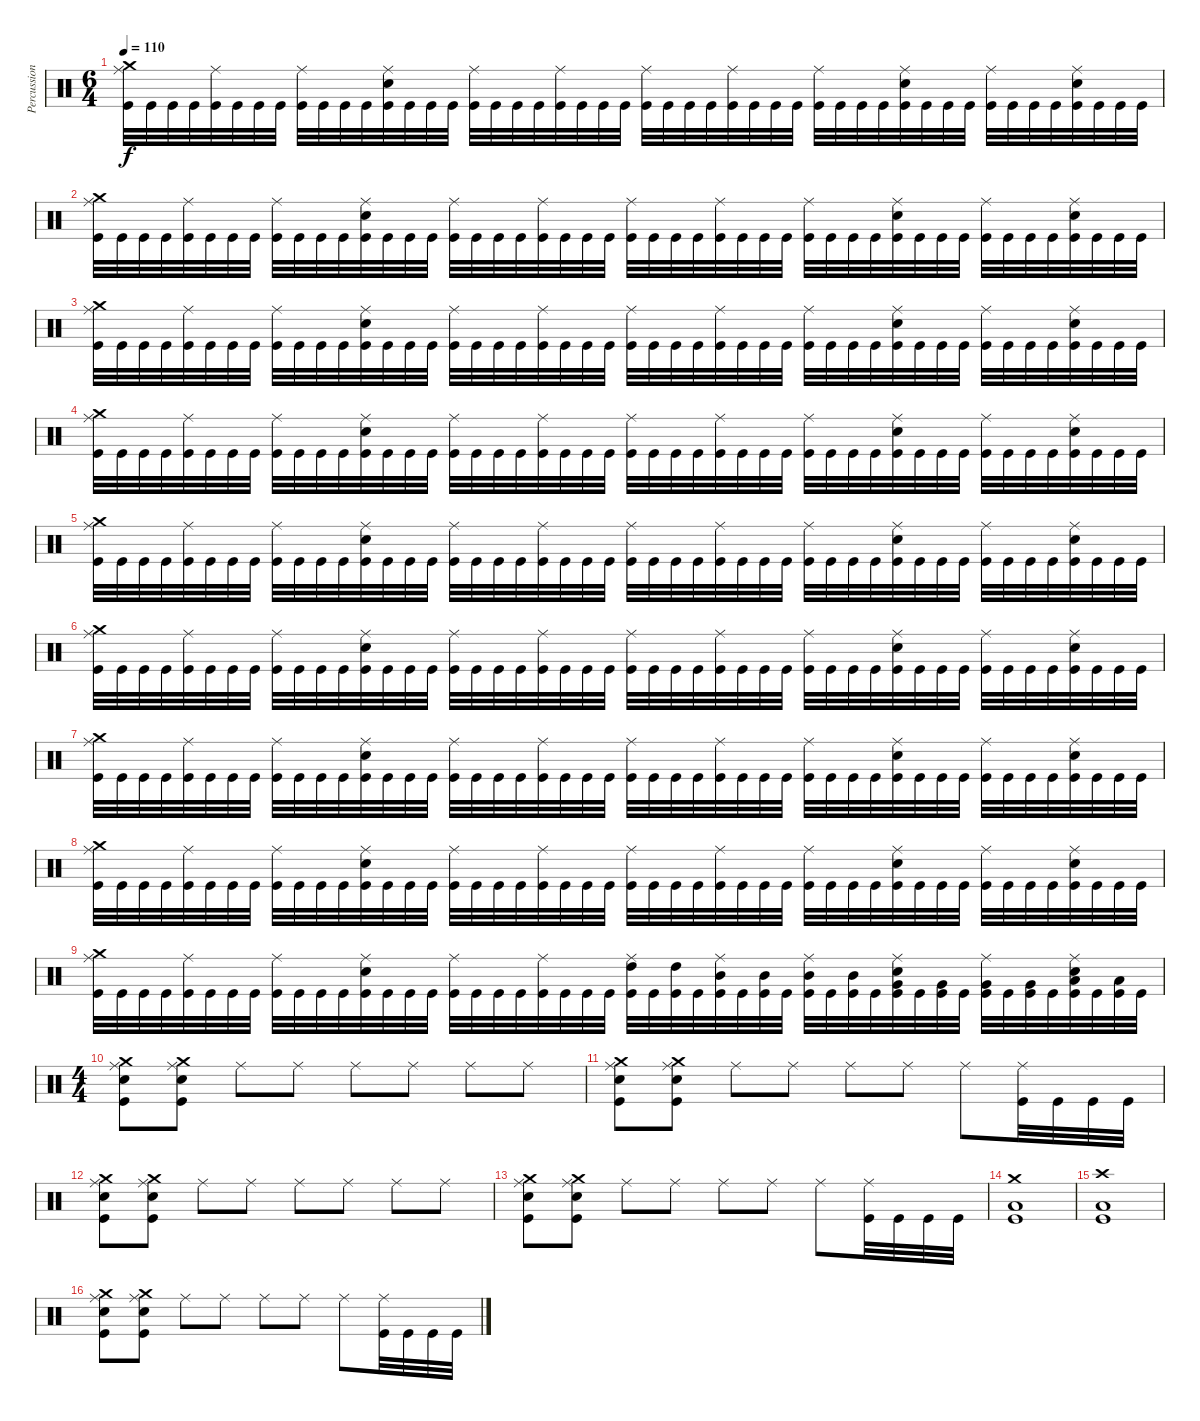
\track ("Percussion" "Percussion") {instrument percussion}
\staff {score}
\articulation defaults
\ts (6 4)
\tempo 110
\clef neutral
\ks c
("Crash medium (hit)" "Ride (middle)" "Kick (hit)").32{dy f} "Kick (hit)".32 "Kick (hit)".32 "Kick (hit)".32 ("Ride (middle)" "Kick (hit)").32 "Kick (hit)".32 "Kick (hit)".32 "Kick (hit)".32 ("Ride (middle)" "Kick (hit)").32 "Kick (hit)".32 "Kick (hit)".32 "Kick (hit)".32 ("Ride (middle)" "Electric Snare (hit)" "Kick (hit)").32 "Kick (hit)".32 "Kick (hit)".32 "Kick (hit)".32 ("Ride (middle)" "Kick (hit)").32 "Kick (hit)".32 "Kick (hit)".32 "Kick (hit)".32 ("Ride (middle)" "Kick (hit)").32 "Kick (hit)".32 "Kick (hit)".32 "Kick (hit)".32 ("Ride (middle)" "Kick (hit)").32 "Kick (hit)".32 "Kick (hit)".32 "Kick (hit)".32 ("Ride (middle)" "Kick (hit)").32 "Kick (hit)".32 "Kick (hit)".32 "Kick (hit)".32 ("Ride (middle)" "Kick (hit)").32 "Kick (hit)".32 "Kick (hit)".32 "Kick (hit)".32 ("Ride (middle)" "Electric Snare (hit)" "Kick (hit)").32 "Kick (hit)".32 "Kick (hit)".32 "Kick (hit)".32 ("Ride (middle)" "Kick (hit)").32 "Kick (hit)".32 "Kick (hit)".32 "Kick (hit)".32 ("Ride (middle)" "Electric Snare (hit)" "Kick (hit)").32 "Kick (hit)".32 "Kick (hit)".32 "Kick (hit)".32 |
("Crash medium (hit)" "Ride (middle)" "Kick (hit)").32 "Kick (hit)".32 "Kick (hit)".32 "Kick (hit)".32 ("Ride (middle)" "Kick (hit)").32 "Kick (hit)".32 "Kick (hit)".32 "Kick (hit)".32 ("Ride (middle)" "Kick (hit)").32 "Kick (hit)".32 "Kick (hit)".32 "Kick (hit)".32 ("Ride (middle)" "Electric Snare (hit)" "Kick (hit)").32 "Kick (hit)".32 "Kick (hit)".32 "Kick (hit)".32 ("Ride (middle)" "Kick (hit)").32 "Kick (hit)".32 "Kick (hit)".32 "Kick (hit)".32 ("Ride (middle)" "Kick (hit)").32 "Kick (hit)".32 "Kick (hit)".32 "Kick (hit)".32 ("Ride (middle)" "Kick (hit)").32 "Kick (hit)".32 "Kick (hit)".32 "Kick (hit)".32 ("Ride (middle)" "Kick (hit)").32 "Kick (hit)".32 "Kick (hit)".32 "Kick (hit)".32 ("Ride (middle)" "Kick (hit)").32 "Kick (hit)".32 "Kick (hit)".32 "Kick (hit)".32 ("Ride (middle)" "Electric Snare (hit)" "Kick (hit)").32 "Kick (hit)".32 "Kick (hit)".32 "Kick (hit)".32 ("Ride (middle)" "Kick (hit)").32 "Kick (hit)".32 "Kick (hit)".32 "Kick (hit)".32 ("Ride (middle)" "Electric Snare (hit)" "Kick (hit)").32 "Kick (hit)".32 "Kick (hit)".32 "Kick (hit)".32 |
("Crash medium (hit)" "Ride (middle)" "Kick (hit)").32 "Kick (hit)".32 "Kick (hit)".32 "Kick (hit)".32 ("Ride (middle)" "Kick (hit)").32 "Kick (hit)".32 "Kick (hit)".32 "Kick (hit)".32 ("Ride (middle)" "Kick (hit)").32 "Kick (hit)".32 "Kick (hit)".32 "Kick (hit)".32 ("Ride (middle)" "Electric Snare (hit)" "Kick (hit)").32 "Kick (hit)".32 "Kick (hit)".32 "Kick (hit)".32 ("Ride (middle)" "Kick (hit)").32 "Kick (hit)".32 "Kick (hit)".32 "Kick (hit)".32 ("Ride (middle)" "Kick (hit)").32 "Kick (hit)".32 "Kick (hit)".32 "Kick (hit)".32 ("Ride (middle)" "Kick (hit)").32 "Kick (hit)".32 "Kick (hit)".32 "Kick (hit)".32 ("Ride (middle)" "Kick (hit)").32 "Kick (hit)".32 "Kick (hit)".32 "Kick (hit)".32 ("Ride (middle)" "Kick (hit)").32 "Kick (hit)".32 "Kick (hit)".32 "Kick (hit)".32 ("Ride (middle)" "Electric Snare (hit)" "Kick (hit)").32 "Kick (hit)".32 "Kick (hit)".32 "Kick (hit)".32 ("Ride (middle)" "Kick (hit)").32 "Kick (hit)".32 "Kick (hit)".32 "Kick (hit)".32 ("Ride (middle)" "Electric Snare (hit)" "Kick (hit)").32 "Kick (hit)".32 "Kick (hit)".32 "Kick (hit)".32 |
("Crash medium (hit)" "Ride (middle)" "Kick (hit)").32 "Kick (hit)".32 "Kick (hit)".32 "Kick (hit)".32 ("Ride (middle)" "Kick (hit)").32 "Kick (hit)".32 "Kick (hit)".32 "Kick (hit)".32 ("Ride (middle)" "Kick (hit)").32 "Kick (hit)".32 "Kick (hit)".32 "Kick (hit)".32 ("Ride (middle)" "Electric Snare (hit)" "Kick (hit)").32 "Kick (hit)".32 "Kick (hit)".32 "Kick (hit)".32 ("Ride (middle)" "Kick (hit)").32 "Kick (hit)".32 "Kick (hit)".32 "Kick (hit)".32 ("Ride (middle)" "Kick (hit)").32 "Kick (hit)".32 "Kick (hit)".32 "Kick (hit)".32 ("Ride (middle)" "Kick (hit)").32 "Kick (hit)".32 "Kick (hit)".32 "Kick (hit)".32 ("Ride (middle)" "Kick (hit)").32 "Kick (hit)".32 "Kick (hit)".32 "Kick (hit)".32 ("Ride (middle)" "Kick (hit)").32 "Kick (hit)".32 "Kick (hit)".32 "Kick (hit)".32 ("Ride (middle)" "Electric Snare (hit)" "Kick (hit)").32 "Kick (hit)".32 "Kick (hit)".32 "Kick (hit)".32 ("Ride (middle)" "Kick (hit)").32 "Kick (hit)".32 "Kick (hit)".32 "Kick (hit)".32 ("Ride (middle)" "Electric Snare (hit)" "Kick (hit)").32 "Kick (hit)".32 "Kick (hit)".32 "Kick (hit)".32 |
("Crash medium (hit)" "Ride (middle)" "Kick (hit)").32 "Kick (hit)".32 "Kick (hit)".32 "Kick (hit)".32 ("Ride (middle)" "Kick (hit)").32 "Kick (hit)".32 "Kick (hit)".32 "Kick (hit)".32 ("Ride (middle)" "Kick (hit)").32 "Kick (hit)".32 "Kick (hit)".32 "Kick (hit)".32 ("Ride (middle)" "Electric Snare (hit)" "Kick (hit)").32 "Kick (hit)".32 "Kick (hit)".32 "Kick (hit)".32 ("Ride (middle)" "Kick (hit)").32 "Kick (hit)".32 "Kick (hit)".32 "Kick (hit)".32 ("Ride (middle)" "Kick (hit)").32 "Kick (hit)".32 "Kick (hit)".32 "Kick (hit)".32 ("Ride (middle)" "Kick (hit)").32 "Kick (hit)".32 "Kick (hit)".32 "Kick (hit)".32 ("Ride (middle)" "Kick (hit)").32 "Kick (hit)".32 "Kick (hit)".32 "Kick (hit)".32 ("Ride (middle)" "Kick (hit)").32 "Kick (hit)".32 "Kick (hit)".32 "Kick (hit)".32 ("Ride (middle)" "Electric Snare (hit)" "Kick (hit)").32 "Kick (hit)".32 "Kick (hit)".32 "Kick (hit)".32 ("Ride (middle)" "Kick (hit)").32 "Kick (hit)".32 "Kick (hit)".32 "Kick (hit)".32 ("Ride (middle)" "Electric Snare (hit)" "Kick (hit)").32 "Kick (hit)".32 "Kick (hit)".32 "Kick (hit)".32 |
("Crash medium (hit)" "Ride (middle)" "Kick (hit)").32 "Kick (hit)".32 "Kick (hit)".32 "Kick (hit)".32 ("Ride (middle)" "Kick (hit)").32 "Kick (hit)".32 "Kick (hit)".32 "Kick (hit)".32 ("Ride (middle)" "Kick (hit)").32 "Kick (hit)".32 "Kick (hit)".32 "Kick (hit)".32 ("Ride (middle)" "Electric Snare (hit)" "Kick (hit)").32 "Kick (hit)".32 "Kick (hit)".32 "Kick (hit)".32 ("Ride (middle)" "Kick (hit)").32 "Kick (hit)".32 "Kick (hit)".32 "Kick (hit)".32 ("Ride (middle)" "Kick (hit)").32 "Kick (hit)".32 "Kick (hit)".32 "Kick (hit)".32 ("Ride (middle)" "Kick (hit)").32 "Kick (hit)".32 "Kick (hit)".32 "Kick (hit)".32 ("Ride (middle)" "Kick (hit)").32 "Kick (hit)".32 "Kick (hit)".32 "Kick (hit)".32 ("Ride (middle)" "Kick (hit)").32 "Kick (hit)".32 "Kick (hit)".32 "Kick (hit)".32 ("Ride (middle)" "Electric Snare (hit)" "Kick (hit)").32 "Kick (hit)".32 "Kick (hit)".32 "Kick (hit)".32 ("Ride (middle)" "Kick (hit)").32 "Kick (hit)".32 "Kick (hit)".32 "Kick (hit)".32 ("Ride (middle)" "Electric Snare (hit)" "Kick (hit)").32 "Kick (hit)".32 "Kick (hit)".32 "Kick (hit)".32 |
("Crash medium (hit)" "Ride (middle)" "Kick (hit)").32 "Kick (hit)".32 "Kick (hit)".32 "Kick (hit)".32 ("Ride (middle)" "Kick (hit)").32 "Kick (hit)".32 "Kick (hit)".32 "Kick (hit)".32 ("Ride (middle)" "Kick (hit)").32 "Kick (hit)".32 "Kick (hit)".32 "Kick (hit)".32 ("Ride (middle)" "Electric Snare (hit)" "Kick (hit)").32 "Kick (hit)".32 "Kick (hit)".32 "Kick (hit)".32 ("Ride (middle)" "Kick (hit)").32 "Kick (hit)".32 "Kick (hit)".32 "Kick (hit)".32 ("Ride (middle)" "Kick (hit)").32 "Kick (hit)".32 "Kick (hit)".32 "Kick (hit)".32 ("Ride (middle)" "Kick (hit)").32 "Kick (hit)".32 "Kick (hit)".32 "Kick (hit)".32 ("Ride (middle)" "Kick (hit)").32 "Kick (hit)".32 "Kick (hit)".32 "Kick (hit)".32 ("Ride (middle)" "Kick (hit)").32 "Kick (hit)".32 "Kick (hit)".32 "Kick (hit)".32 ("Ride (middle)" "Electric Snare (hit)" "Kick (hit)").32 "Kick (hit)".32 "Kick (hit)".32 "Kick (hit)".32 ("Ride (middle)" "Kick (hit)").32 "Kick (hit)".32 "Kick (hit)".32 "Kick (hit)".32 ("Ride (middle)" "Electric Snare (hit)" "Kick (hit)").32 "Kick (hit)".32 "Kick (hit)".32 "Kick (hit)".32 |
("Crash medium (hit)" "Ride (middle)" "Kick (hit)").32 "Kick (hit)".32 "Kick (hit)".32 "Kick (hit)".32 ("Ride (middle)" "Kick (hit)").32 "Kick (hit)".32 "Kick (hit)".32 "Kick (hit)".32 ("Ride (middle)" "Kick (hit)").32 "Kick (hit)".32 "Kick (hit)".32 "Kick (hit)".32 ("Ride (middle)" "Electric Snare (hit)" "Kick (hit)").32 "Kick (hit)".32 "Kick (hit)".32 "Kick (hit)".32 ("Ride (middle)" "Kick (hit)").32 "Kick (hit)".32 "Kick (hit)".32 "Kick (hit)".32 ("Ride (middle)" "Kick (hit)").32 "Kick (hit)".32 "Kick (hit)".32 "Kick (hit)".32 ("Ride (middle)" "Kick (hit)").32 "Kick (hit)".32 "Kick (hit)".32 "Kick (hit)".32 ("Ride (middle)" "Kick (hit)").32 "Kick (hit)".32 "Kick (hit)".32 "Kick (hit)".32 ("Ride (middle)" "Kick (hit)").32 "Kick (hit)".32 "Kick (hit)".32 "Kick (hit)".32 ("Ride (middle)" "Electric Snare (hit)" "Kick (hit)").32 "Kick (hit)".32 "Kick (hit)".32 "Kick (hit)".32 ("Ride (middle)" "Kick (hit)").32 "Kick (hit)".32 "Kick (hit)".32 "Kick (hit)".32 ("Ride (middle)" "Electric Snare (hit)" "Kick (hit)").32 "Kick (hit)".32 "Kick (hit)".32 "Kick (hit)".32 |
("Crash medium (hit)" "Ride (middle)" "Kick (hit)").32 "Kick (hit)".32 "Kick (hit)".32 "Kick (hit)".32 ("Ride (middle)" "Kick (hit)").32 "Kick (hit)".32 "Kick (hit)".32 "Kick (hit)".32 ("Ride (middle)" "Kick (hit)").32 "Kick (hit)".32 "Kick (hit)".32 "Kick (hit)".32 ("Ride (middle)" "Electric Snare (hit)" "Kick (hit)").32 "Kick (hit)".32 "Kick (hit)".32 "Kick (hit)".32 ("Ride (middle)" "Kick (hit)").32 "Kick (hit)".32 "Kick (hit)".32 "Kick (hit)".32 ("Ride (middle)" "Kick (hit)").32 "Kick (hit)".32 "Kick (hit)".32 "Kick (hit)".32 ("High Tom (hit)" "Ride (middle)" "Kick (hit)").32 "Kick (hit)".32 ("High Tom (hit)" "Kick (hit)").32 "Kick (hit)".32 ("Mid Tom (hit)" "Ride (middle)" "Kick (hit)").32 "Kick (hit)".32 ("Mid Tom (hit)" "Kick (hit)").32 "Kick (hit)".32 ("Mid Tom (hit)" "Ride (middle)" "Kick (hit)").32 "Kick (hit)".32 ("Mid Tom (hit)" "Kick (hit)").32 "Kick (hit)".32 ("Very Low Tom (hit)" "Ride (middle)" "Electric Snare (hit)" "Kick (hit)").32 "Kick (hit)".32 ("Very Low Tom (hit)" "Kick (hit)").32 "Kick (hit)".32 ("Very Low Tom (hit)" "Ride (middle)" "Kick (hit)").32 "Kick (hit)".32 ("Very Low Tom (hit)" "Kick (hit)").32 "Kick (hit)".32 ("Low Floor Tom (hit)" "Ride (middle)" "Electric Snare (hit)" "Kick (hit)").32 "Kick (hit)".32 ("Low Floor Tom (hit)" "Kick (hit)").32 "Kick (hit)".32 |
\ts (4 4)
("Crash medium (hit)" "Ride (middle)" "Electric Snare (hit)" "Kick (hit)").8 ("Crash medium (hit)" "Ride (middle)" "Electric Snare (hit)" "Kick (hit)").8 "Ride (middle)".8 "Ride (middle)".8 "Ride (middle)".8 "Ride (middle)".8 "Ride (middle)".8 "Ride (middle)".8 |
("Crash medium (hit)" "Ride (middle)" "Electric Snare (hit)" "Kick (hit)").8 ("Crash medium (hit)" "Ride (middle)" "Electric Snare (hit)" "Kick (hit)").8 "Ride (middle)".8 "Ride (middle)".8 "Ride (middle)".8 "Ride (middle)".8 "Ride (middle)".8 ("Ride (middle)" "Kick (hit)").32 "Kick (hit)".32 "Kick (hit)".32 "Kick (hit)".32 |
("Crash medium (hit)" "Ride (middle)" "Electric Snare (hit)" "Kick (hit)").8 ("Crash medium (hit)" "Ride (middle)" "Electric Snare (hit)" "Kick (hit)").8 "Ride (middle)".8 "Ride (middle)".8 "Ride (middle)".8 "Ride (middle)".8 "Ride (middle)".8 "Ride (middle)".8 |
("Crash medium (hit)" "Ride (middle)" "Electric Snare (hit)" "Kick (hit)").8 ("Crash medium (hit)" "Ride (middle)" "Electric Snare (hit)" "Kick (hit)").8 "Ride (middle)".8 "Ride (middle)".8 "Ride (middle)".8 "Ride (middle)".8 "Ride (middle)".8 ("Ride (middle)" "Kick (hit)").32 "Kick (hit)".32 "Kick (hit)".32 "Kick (hit)".32 |
("Crash medium (hit)" "Low Floor Tom (hit)" "Kick (hit)").1 |
("Crash high (hit)" "Low Floor Tom (hit)" "Kick (hit)").1 |
("Crash medium (hit)" "Ride (middle)" "Electric Snare (hit)" "Kick (hit)").8 ("Crash medium (hit)" "Ride (middle)" "Electric Snare (hit)" "Kick (hit)").8 "Ride (middle)".8 "Ride (middle)".8 "Ride (middle)".8 "Ride (middle)".8 "Ride (middle)".8 ("Ride (middle)" "Kick (hit)").32 "Kick (hit)".32 "Kick (hit)".32 "Kick (hit)".32
